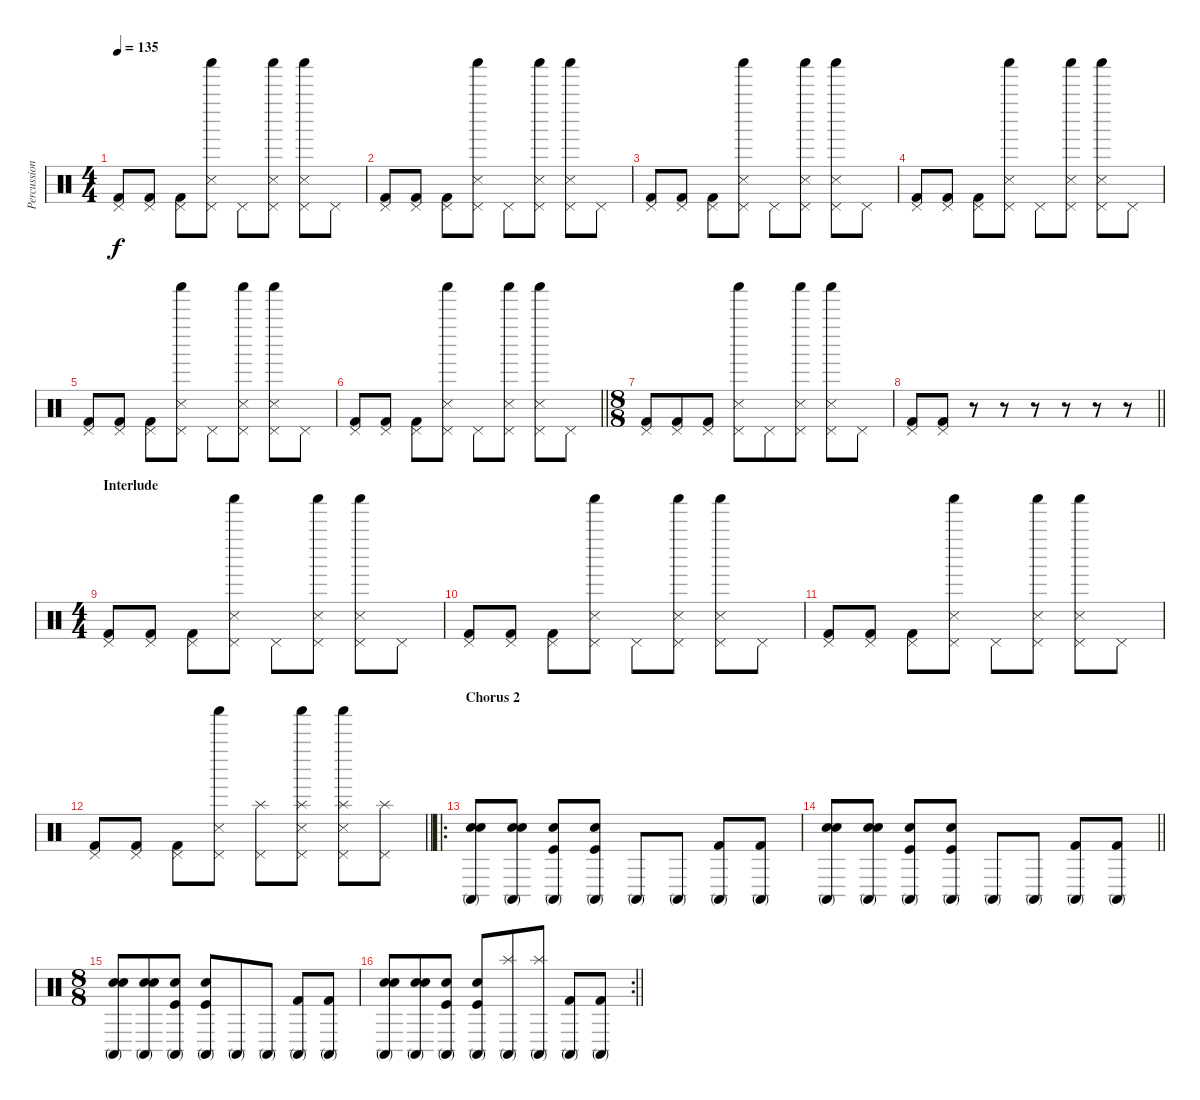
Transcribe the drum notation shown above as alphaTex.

\track ("Percussion" "Percussion") {instrument percussion}
\staff {score}
\articulation defaults
\ts (4 4)
\tempo 135
\clef neutral
\ks c
("Kick (hit) 2" "Pedal Hi-Hat (hit)").8{dy f} ("Kick (hit) 2" "Pedal Hi-Hat (hit)").8 ("Kick (hit) 2" "Pedal Hi-Hat (hit)").8 ("Metronome (hit)" "Shaker (hit)" "Pedal Hi-Hat (hit)").8 "Pedal Hi-Hat (hit)".8 ("Metronome (hit)" "Shaker (hit)" "Pedal Hi-Hat (hit)").8 ("Metronome (hit)" "Shaker (hit)" "Pedal Hi-Hat (hit)").8 "Pedal Hi-Hat (hit)".8 |
("Kick (hit) 2" "Pedal Hi-Hat (hit)").8 ("Kick (hit) 2" "Pedal Hi-Hat (hit)").8 ("Kick (hit) 2" "Pedal Hi-Hat (hit)").8 ("Metronome (hit)" "Shaker (hit)" "Pedal Hi-Hat (hit)").8 "Pedal Hi-Hat (hit)".8 ("Metronome (hit)" "Shaker (hit)" "Pedal Hi-Hat (hit)").8 ("Metronome (hit)" "Shaker (hit)" "Pedal Hi-Hat (hit)").8 "Pedal Hi-Hat (hit)".8 |
("Kick (hit) 2" "Pedal Hi-Hat (hit)").8 ("Kick (hit) 2" "Pedal Hi-Hat (hit)").8 ("Kick (hit) 2" "Pedal Hi-Hat (hit)").8 ("Metronome (hit)" "Shaker (hit)" "Pedal Hi-Hat (hit)").8 "Pedal Hi-Hat (hit)".8 ("Metronome (hit)" "Shaker (hit)" "Pedal Hi-Hat (hit)").8 ("Metronome (hit)" "Shaker (hit)" "Pedal Hi-Hat (hit)").8 "Pedal Hi-Hat (hit)".8 |
("Kick (hit) 2" "Pedal Hi-Hat (hit)").8 ("Kick (hit) 2" "Pedal Hi-Hat (hit)").8 ("Kick (hit) 2" "Pedal Hi-Hat (hit)").8 ("Metronome (hit)" "Shaker (hit)" "Pedal Hi-Hat (hit)").8 "Pedal Hi-Hat (hit)".8 ("Metronome (hit)" "Shaker (hit)" "Pedal Hi-Hat (hit)").8 ("Metronome (hit)" "Shaker (hit)" "Pedal Hi-Hat (hit)").8 "Pedal Hi-Hat (hit)".8 |
("Kick (hit) 2" "Pedal Hi-Hat (hit)").8 ("Kick (hit) 2" "Pedal Hi-Hat (hit)").8 ("Kick (hit) 2" "Pedal Hi-Hat (hit)").8 ("Metronome (hit)" "Shaker (hit)" "Pedal Hi-Hat (hit)").8 "Pedal Hi-Hat (hit)".8 ("Metronome (hit)" "Shaker (hit)" "Pedal Hi-Hat (hit)").8 ("Metronome (hit)" "Shaker (hit)" "Pedal Hi-Hat (hit)").8 "Pedal Hi-Hat (hit)".8 |
\barLineRight lightlight
("Kick (hit) 2" "Pedal Hi-Hat (hit)").8 ("Kick (hit) 2" "Pedal Hi-Hat (hit)").8 ("Kick (hit) 2" "Pedal Hi-Hat (hit)").8 ("Metronome (hit)" "Shaker (hit)" "Pedal Hi-Hat (hit)").8 "Pedal Hi-Hat (hit)".8 ("Metronome (hit)" "Shaker (hit)" "Pedal Hi-Hat (hit)").8 ("Metronome (hit)" "Shaker (hit)" "Pedal Hi-Hat (hit)").8 "Pedal Hi-Hat (hit)".8 |
\ts (8 8)
("Kick (hit) 2" "Pedal Hi-Hat (hit)").8 ("Kick (hit) 2" "Pedal Hi-Hat (hit)").8 ("Kick (hit) 2" "Pedal Hi-Hat (hit)").8 ("Metronome (hit)" "Shaker (hit)" "Pedal Hi-Hat (hit)").8 "Pedal Hi-Hat (hit)".8 ("Metronome (hit)" "Shaker (hit)" "Pedal Hi-Hat (hit)").8 ("Metronome (hit)" "Shaker (hit)" "Pedal Hi-Hat (hit)").8 "Pedal Hi-Hat (hit)".8 |
\barLineRight lightlight
("Kick (hit) 2" "Pedal Hi-Hat (hit)").8 ("Kick (hit) 2" "Pedal Hi-Hat (hit)").8 r.8 r.8 r.8 r.8 r.8 r.8 |
\ts (4 4)
\section ("" "Interlude")
("Kick (hit) 2" "Pedal Hi-Hat (hit)").8 ("Kick (hit) 2" "Pedal Hi-Hat (hit)").8 ("Kick (hit) 2" "Pedal Hi-Hat (hit)").8 ("Metronome (hit)" "Shaker (hit)" "Pedal Hi-Hat (hit)").8 "Pedal Hi-Hat (hit)".8 ("Metronome (hit)" "Shaker (hit)" "Pedal Hi-Hat (hit)").8 ("Metronome (hit)" "Shaker (hit)" "Pedal Hi-Hat (hit)").8 "Pedal Hi-Hat (hit)".8 |
("Kick (hit) 2" "Pedal Hi-Hat (hit)").8 ("Kick (hit) 2" "Pedal Hi-Hat (hit)").8 ("Kick (hit) 2" "Pedal Hi-Hat (hit)").8 ("Metronome (hit)" "Shaker (hit)" "Pedal Hi-Hat (hit)").8 "Pedal Hi-Hat (hit)".8 ("Metronome (hit)" "Shaker (hit)" "Pedal Hi-Hat (hit)").8 ("Metronome (hit)" "Shaker (hit)" "Pedal Hi-Hat (hit)").8 "Pedal Hi-Hat (hit)".8 |
("Kick (hit) 2" "Pedal Hi-Hat (hit)").8 ("Kick (hit) 2" "Pedal Hi-Hat (hit)").8 ("Kick (hit) 2" "Pedal Hi-Hat (hit)").8 ("Metronome (hit)" "Shaker (hit)" "Pedal Hi-Hat (hit)").8 "Pedal Hi-Hat (hit)".8 ("Metronome (hit)" "Shaker (hit)" "Pedal Hi-Hat (hit)").8 ("Metronome (hit)" "Shaker (hit)" "Pedal Hi-Hat (hit)").8 "Pedal Hi-Hat (hit)".8 |
\barLineRight lightlight
("Kick (hit) 2" "Pedal Hi-Hat (hit)").8 ("Kick (hit) 2" "Pedal Hi-Hat (hit)").8 ("Kick (hit) 2" "Pedal Hi-Hat (hit)").8 ("Metronome (hit)" "Shaker (hit)" "Pedal Hi-Hat (hit)").8 ("Splash (hit)" "Pedal Hi-Hat (hit)").8 ("Metronome (hit)" "Shaker (hit)" "Splash (hit)" "Pedal Hi-Hat (hit)").8 ("Metronome (hit)" "Shaker (hit)" "Splash (hit)" "Pedal Hi-Hat (hit)").8 ("Splash (hit)" "Pedal Hi-Hat (hit)").8 |
\ro
\section ("" "Chorus 2")
("Electric Snare (hit)" "Electric Snare (hit)" "Conga high (mute)").8 ("Electric Snare (hit)" "Electric Snare (hit)" "Conga high (mute)").8 ("Kick (hit)" "Snare (hit) 2" "Conga high (mute)").8 ("Kick (hit)" "Snare (hit) 2" "Conga high (mute)").8 "Conga high (mute)".8 "Conga high (mute)".8 ("Kick (hit) 2" "Conga high (mute)").8 ("Kick (hit) 2" "Conga high (mute)").8 |
\barLineRight lightlight
("Electric Snare (hit)" "Electric Snare (hit)" "Conga high (mute)").8 ("Electric Snare (hit)" "Electric Snare (hit)" "Conga high (mute)").8 ("Kick (hit)" "Snare (hit) 2" "Conga high (mute)").8 ("Kick (hit)" "Snare (hit) 2" "Conga high (mute)").8 "Conga high (mute)".8 "Conga high (mute)".8 ("Kick (hit) 2" "Conga high (mute)").8 ("Kick (hit) 2" "Conga high (mute)").8 |
\ts (8 8)
("Electric Snare (hit)" "Electric Snare (hit)" "Conga high (mute)").8 ("Electric Snare (hit)" "Electric Snare (hit)" "Conga high (mute)").8 ("Kick (hit)" "Snare (hit) 2" "Conga high (mute)").8 ("Kick (hit)" "Snare (hit) 2" "Conga high (mute)").8 "Conga high (mute)".8 "Conga high (mute)".8 ("Kick (hit) 2" "Conga high (mute)").8 ("Kick (hit) 2" "Conga high (mute)").8 |
\rc 2
\barLineRight lightlight
("Electric Snare (hit)" "Electric Snare (hit)" "Conga high (mute)").8 ("Electric Snare (hit)" "Electric Snare (hit)" "Conga high (mute)").8 ("Kick (hit)" "Snare (hit) 2" "Conga high (mute)").8 ("Kick (hit)" "Snare (hit) 2" "Conga high (mute)").8 ("Splash (hit)" "Conga high (mute)").8 ("Splash (hit)" "Conga high (mute)").8 ("Kick (hit) 2" "Conga high (mute)").8 ("Kick (hit) 2" "Conga high (mute)").8
